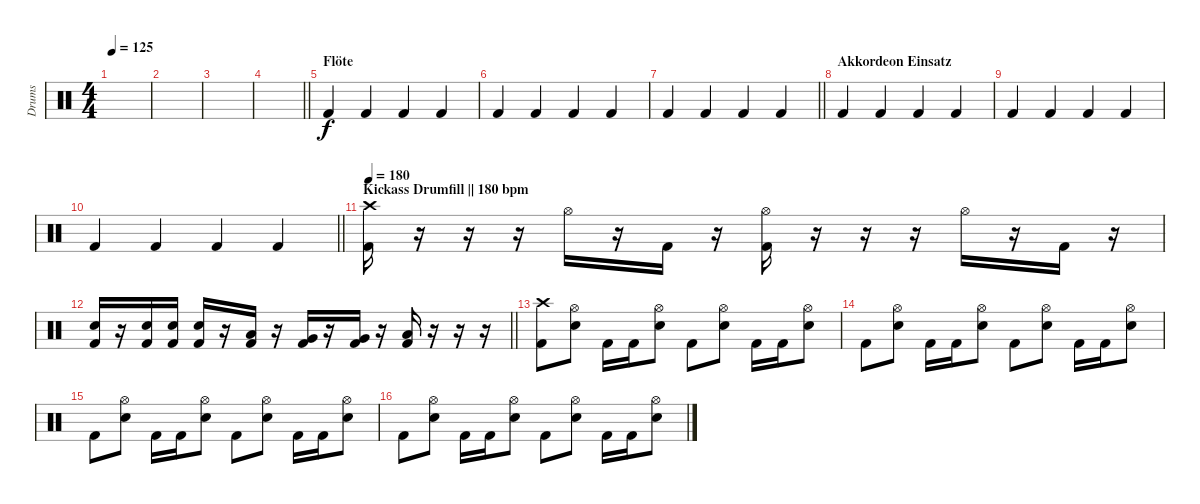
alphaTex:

\track ("Drums" "Drums") {instrument percussion}
\staff {score}
\articulation defaults
\ts (4 4)
\tempo 125
\clef neutral
\ks c
|
|
|
\barLineRight lightlight
|
\section ("" "Flöte")
"Kick (hit) 2".4 "Kick (hit) 2".4 "Kick (hit) 2".4 "Kick (hit) 2".4 |
"Kick (hit) 2".4 "Kick (hit) 2".4 "Kick (hit) 2".4 "Kick (hit) 2".4 |
\barLineRight lightlight "Kick (hit) 2".4 "Kick (hit) 2".4 "Kick (hit) 2".4 "Kick (hit) 2".4
|
\section ("" "Akkordeon Einsatz")
"Kick (hit) 2".4 "Kick (hit) 2".4 "Kick (hit) 2".4 "Kick (hit) 2".4 |
"Kick (hit) 2".4 "Kick (hit) 2".4 "Kick (hit) 2".4 "Kick (hit) 2".4 |
\barLineRight lightlight "Kick (hit) 2".4 "Kick (hit) 2".4 "Kick (hit) 2".4 "Kick (hit) 2".4
|
\section ("" "Kickass Drumfill || 180 bpm")
\tempo 180
("Crash high (hit)" "Kick (hit) 2").16 r.16 r.16 r.16 "Hi-Hat (open)".16 r.16 "Kick (hit) 2".16 r.16 ("Hi-Hat (open)" "Kick (hit) 2").16 r.16 r.16 r.16 "Hi-Hat (open)".16 r.16 "Kick (hit) 2".16 r.16 |
\barLineRight lightlight
("Electric Snare (hit)" "Kick (hit) 2").16 r.16 ("Electric Snare (hit)" "Kick (hit) 2").16 ("Electric Snare (hit)" "Kick (hit) 2").16 ("Electric Snare (hit)" "Kick (hit) 2").16 r.16 ("Low Tom (hit)" "Kick (hit) 2").16 r.16 ("Very Low Tom (hit)" "Kick (hit) 2").16 r.16 ("Very Low Tom (hit)" "Kick (hit) 2").16 r.16 ("Low Floor Tom (hit)" "Kick (hit) 2").16 r.16 r.16 r.16 |
\section ("" "")
("Crash high (hit)" "Kick (hit) 2").8 ("Hi-Hat (open)" "Electric Snare (hit)").8 "Kick (hit) 2".16 "Kick (hit) 2".16 ("Hi-Hat (open)" "Electric Snare (hit)").8 "Kick (hit) 2".8 ("Hi-Hat (open)" "Electric Snare (hit)").8 "Kick (hit) 2".16 "Kick (hit) 2".16 ("Hi-Hat (open)" "Electric Snare (hit)").8 |
"Kick (hit) 2".8 ("Hi-Hat (open)" "Electric Snare (hit)").8 "Kick (hit) 2".16 "Kick (hit) 2".16 ("Hi-Hat (open)" "Electric Snare (hit)").8 "Kick (hit) 2".8 ("Hi-Hat (open)" "Electric Snare (hit)").8 "Kick (hit) 2".16 "Kick (hit) 2".16 ("Hi-Hat (open)" "Electric Snare (hit)").8 |
"Kick (hit) 2".8 ("Hi-Hat (open)" "Electric Snare (hit)").8 "Kick (hit) 2".16 "Kick (hit) 2".16 ("Hi-Hat (open)" "Electric Snare (hit)").8 "Kick (hit) 2".8 ("Hi-Hat (open)" "Electric Snare (hit)").8 "Kick (hit) 2".16 "Kick (hit) 2".16 ("Hi-Hat (open)" "Electric Snare (hit)").8 |
"Kick (hit) 2".8 ("Hi-Hat (open)" "Electric Snare (hit)").8 "Kick (hit) 2".16 "Kick (hit) 2".16 ("Hi-Hat (open)" "Electric Snare (hit)").8 "Kick (hit) 2".8 ("Hi-Hat (open)" "Electric Snare (hit)").8 "Kick (hit) 2".16 "Kick (hit) 2".16 ("Hi-Hat (open)" "Electric Snare (hit)").8
